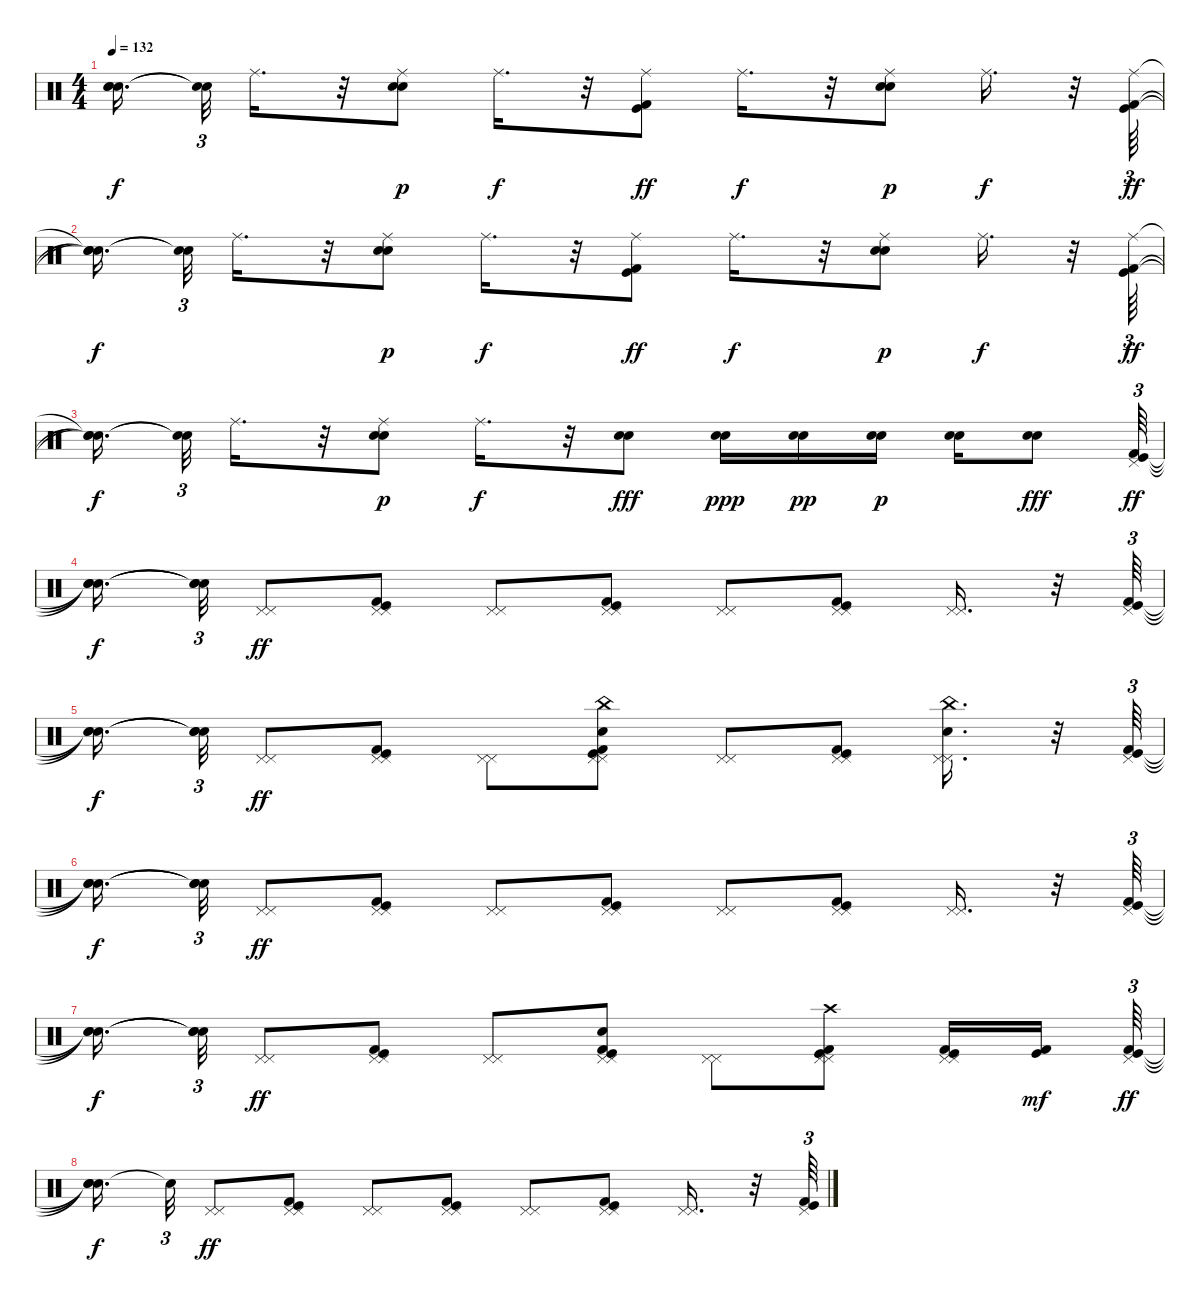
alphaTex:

\track "" {instrument percussion}
\staff {score}
\articulation defaults
\ts (4 4)
\tempo 132
\clef neutral
\ks c
("Snare (hit)"{t} "Snare (hit)"{t} "Snare (hit)"{t}).16{d dy f beam splitsecondary} ("Snare (hit)"{t} "Snare (hit)"{t}).32{tu (3 2)} "Ride (middle)".16{d} r.32 ("Electric Snare (hit)" "Snare (hit) 2" "Ride (middle)").8{dy p} "Ride (middle)".16{d dy f} r.32 ("Kick (hit) 2" "Kick (hit)" "Ride (middle)").8{dy ff} "Ride (middle)".16{d dy f} r.32 ("Electric Snare (hit)" "Snare (hit) 2" "Ride (middle)").8{dy p} "Ride (middle)".16{d dy f} r.32 ("Kick (hit) 2" "Kick (hit)" "Ride (middle)").64{tu (3 2) dy ff} |
("Snare (hit)"{t} "Snare (hit)"{t} "Snare (hit)"{t}).16{d dy f beam splitsecondary} ("Snare (hit)"{t} "Snare (hit)"{t}).32{tu (3 2)} "Ride (middle)".16{d} r.32 ("Electric Snare (hit)" "Snare (hit) 2" "Ride (middle)").8{dy p} "Ride (middle)".16{d dy f} r.32 ("Kick (hit) 2" "Kick (hit)" "Ride (middle)").8{dy ff} "Ride (middle)".16{d dy f} r.32 ("Electric Snare (hit)" "Snare (hit) 2" "Ride (middle)").8{dy p} "Ride (middle)".16{d dy f} r.32 ("Kick (hit) 2" "Kick (hit)" "Ride (middle)").64{tu (3 2) dy ff} |
("Snare (hit)"{t} "Snare (hit)"{t} "Snare (hit)"{t}).16{d dy f beam splitsecondary} ("Snare (hit)"{t} "Snare (hit)"{t}).32{tu (3 2)} "Ride (middle)".16{d} r.32 ("Electric Snare (hit)" "Snare (hit) 2" "Ride (middle)").8{dy p} "Ride (middle)".16{d dy f} r.32 ("Snare (hit) 2" "Electric Snare (hit)").8{dy fff} ("Electric Snare (hit)" "Snare (hit) 2").16{dy ppp} ("Electric Snare (hit)" "Snare (hit) 2").16{dy pp} ("Electric Snare (hit)" "Snare (hit) 2").16{dy p} ("Electric Snare (hit)" "Snare (hit) 2").16 ("Snare (hit) 2" "Electric Snare (hit)").8{dy fff} ("Kick (hit) 2" "Kick (hit)" "Pedal Hi-Hat (hit)").64{tu (3 2) dy ff} |
("Snare (hit)"{t} "Snare (hit)"{t} "Snare (hit)"{t}).16{d dy f beam splitsecondary} ("Snare (hit)"{t} "Snare (hit)"{t} "Snare (hit)"{t}).32{tu (3 2)} ("Pedal Hi-Hat (hit)" "Pedal Hi-Hat (hit)").8{dy ff} ("Kick (hit)" "Kick (hit) 2" "Pedal Hi-Hat (hit)" "Pedal Hi-Hat (hit)").8 ("Pedal Hi-Hat (hit)" "Pedal Hi-Hat (hit)").8 ("Kick (hit) 2" "Kick (hit)" "Pedal Hi-Hat (hit)" "Pedal Hi-Hat (hit)").8 ("Pedal Hi-Hat (hit)" "Pedal Hi-Hat (hit)").8 ("Kick (hit)" "Kick (hit) 2" "Pedal Hi-Hat (hit)" "Pedal Hi-Hat (hit)").8 ("Pedal Hi-Hat (hit)" "Pedal Hi-Hat (hit)").16{d} r.32 ("Kick (hit) 2" "Kick (hit)" "Pedal Hi-Hat (hit)").64{tu (3 2)} |
("Snare (hit)"{t} "Snare (hit)"{t} "Snare (hit)"{t}).16{d dy f beam splitsecondary} ("Snare (hit)"{t} "Snare (hit)"{t} "Snare (hit)"{t}).32{tu (3 2)} ("Pedal Hi-Hat (hit)" "Pedal Hi-Hat (hit)").8{dy ff} ("Kick (hit)" "Kick (hit) 2" "Pedal Hi-Hat (hit)" "Pedal Hi-Hat (hit)").8 ("Pedal Hi-Hat (hit)" "Pedal Hi-Hat (hit)").8 ("Kick (hit) 2" "Kick (hit)" "Snare (hit)" "China (choke)" "Pedal Hi-Hat (hit)" "Pedal Hi-Hat (hit)").8 ("Pedal Hi-Hat (hit)" "Pedal Hi-Hat (hit)").8 ("Kick (hit)" "Kick (hit) 2" "Pedal Hi-Hat (hit)" "Pedal Hi-Hat (hit)").8 ("Snare (hit)" "China (choke)" "Pedal Hi-Hat (hit)" "Pedal Hi-Hat (hit)").16{d} r.32 ("Kick (hit) 2" "Kick (hit)" "Pedal Hi-Hat (hit)").64{tu (3 2)} |
("Snare (hit)"{t} "Snare (hit)"{t} "Snare (hit)"{t}).16{d dy f beam splitsecondary} ("Snare (hit)"{t} "Snare (hit)"{t} "Snare (hit)"{t}).32{tu (3 2)} ("Pedal Hi-Hat (hit)" "Pedal Hi-Hat (hit)").8{dy ff} ("Kick (hit)" "Kick (hit) 2" "Pedal Hi-Hat (hit)" "Pedal Hi-Hat (hit)").8 ("Pedal Hi-Hat (hit)" "Pedal Hi-Hat (hit)").8 ("Kick (hit) 2" "Kick (hit)" "Pedal Hi-Hat (hit)" "Pedal Hi-Hat (hit)").8 ("Pedal Hi-Hat (hit)" "Pedal Hi-Hat (hit)").8 ("Kick (hit)" "Kick (hit) 2" "Pedal Hi-Hat (hit)" "Pedal Hi-Hat (hit)").8 ("Pedal Hi-Hat (hit)" "Pedal Hi-Hat (hit)").16{d} r.32 ("Kick (hit) 2" "Kick (hit)" "Pedal Hi-Hat (hit)").64{tu (3 2)} |
("Snare (hit)"{t} "Snare (hit)"{t} "Snare (hit)"{t}).16{d dy f beam splitsecondary} ("Snare (hit)"{t} "Snare (hit)"{t} "Snare (hit)"{t}).32{tu (3 2)} ("Pedal Hi-Hat (hit)" "Pedal Hi-Hat (hit)").8{dy ff} ("Kick (hit)" "Kick (hit) 2" "Pedal Hi-Hat (hit)" "Pedal Hi-Hat (hit)").8 ("Pedal Hi-Hat (hit)" "Pedal Hi-Hat (hit)").8 ("Kick (hit) 2" "Kick (hit)" "Snare (hit) 2" "Pedal Hi-Hat (hit)" "Pedal Hi-Hat (hit)").8 ("Pedal Hi-Hat (hit)" "Pedal Hi-Hat (hit)").8 ("Kick (hit)" "Kick (hit) 2" "Crash high (hit)" "Pedal Hi-Hat (hit)" "Pedal Hi-Hat (hit)").8 ("Kick (hit) 2" "Kick (hit)" "Pedal Hi-Hat (hit)" "Pedal Hi-Hat (hit)").16 ("Kick (hit) 2" "Kick (hit)").16{dy mf beam splitsecondary} ("Kick (hit) 2" "Kick (hit)" "Pedal Hi-Hat (hit)").64{tu (3 2) dy ff} |
("Snare (hit)"{t} "Snare (hit)"{t} "Snare (hit)"{t}).16{d dy f beam splitsecondary} "Snare (hit)"{t}.32{tu (3 2)} ("Pedal Hi-Hat (hit)" "Pedal Hi-Hat (hit)").8{dy ff} ("Kick (hit)" "Kick (hit) 2" "Pedal Hi-Hat (hit)" "Pedal Hi-Hat (hit)").8 ("Pedal Hi-Hat (hit)" "Pedal Hi-Hat (hit)").8 ("Kick (hit) 2" "Kick (hit)" "Pedal Hi-Hat (hit)" "Pedal Hi-Hat (hit)").8 ("Pedal Hi-Hat (hit)" "Pedal Hi-Hat (hit)").8 ("Kick (hit)" "Kick (hit) 2" "Pedal Hi-Hat (hit)" "Pedal Hi-Hat (hit)").8 ("Pedal Hi-Hat (hit)" "Pedal Hi-Hat (hit)").16{d} r.32 ("Kick (hit) 2" "Kick (hit)" "Pedal Hi-Hat (hit)").64{tu (3 2)}
